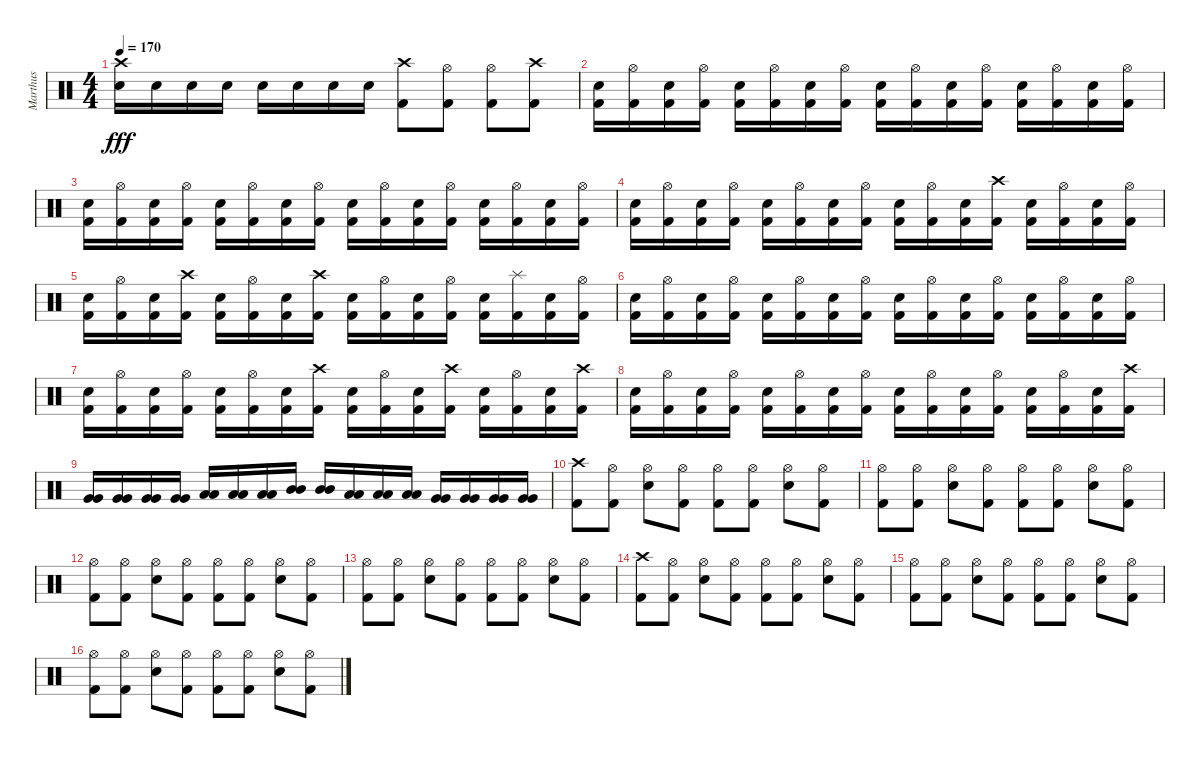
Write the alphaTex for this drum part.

\track ("Marthus" "Marthus") {instrument percussion}
\staff {score}
\articulation defaults
\ts (4 4)
\tempo 170
\clef neutral
\ks c
("Crash high (hit)" "Electric Snare (hit)").16{dy fff} "Electric Snare (hit)".16 "Electric Snare (hit)".16 "Electric Snare (hit)".16 "Electric Snare (hit)".16 "Electric Snare (hit)".16 "Electric Snare (hit)".16 "Electric Snare (hit)".16 ("Crash high (hit)" "Kick (hit) 2").8 ("Hi-Hat (open)" "Kick (hit) 2").8 ("Hi-Hat (open)" "Kick (hit) 2").8 ("Crash high (hit)" "Kick (hit) 2").8 |
("Electric Snare (hit)" "Kick (hit) 2").16 ("Hi-Hat (open)" "Kick (hit) 2").16 ("Electric Snare (hit)" "Kick (hit) 2").16 ("Hi-Hat (open)" "Kick (hit) 2").16 ("Electric Snare (hit)" "Kick (hit) 2").16 ("Hi-Hat (open)" "Kick (hit) 2").16 ("Electric Snare (hit)" "Kick (hit) 2").16 ("Hi-Hat (open)" "Kick (hit) 2").16 ("Electric Snare (hit)" "Kick (hit) 2").16 ("Hi-Hat (open)" "Kick (hit) 2").16 ("Electric Snare (hit)" "Kick (hit) 2").16 ("Hi-Hat (open)" "Kick (hit) 2").16 ("Electric Snare (hit)" "Kick (hit) 2").16 ("Hi-Hat (open)" "Kick (hit) 2").16 ("Electric Snare (hit)" "Kick (hit) 2").16 ("Hi-Hat (open)" "Kick (hit) 2").16 |
("Electric Snare (hit)" "Kick (hit) 2").16 ("Hi-Hat (open)" "Kick (hit) 2").16 ("Electric Snare (hit)" "Kick (hit) 2").16 ("Hi-Hat (open)" "Kick (hit) 2").16 ("Electric Snare (hit)" "Kick (hit) 2").16 ("Hi-Hat (open)" "Kick (hit) 2").16 ("Electric Snare (hit)" "Kick (hit) 2").16 ("Hi-Hat (open)" "Kick (hit) 2").16 ("Electric Snare (hit)" "Kick (hit) 2").16 ("Hi-Hat (open)" "Kick (hit) 2").16 ("Electric Snare (hit)" "Kick (hit) 2").16 ("Hi-Hat (open)" "Kick (hit) 2").16 ("Electric Snare (hit)" "Kick (hit) 2").16 ("Hi-Hat (open)" "Kick (hit) 2").16 ("Electric Snare (hit)" "Kick (hit) 2").16 ("Hi-Hat (open)" "Kick (hit) 2").16 |
("Electric Snare (hit)" "Kick (hit) 2").16 ("Hi-Hat (open)" "Kick (hit) 2").16 ("Electric Snare (hit)" "Kick (hit) 2").16 ("Hi-Hat (open)" "Kick (hit) 2").16 ("Electric Snare (hit)" "Kick (hit) 2").16 ("Hi-Hat (open)" "Kick (hit) 2").16 ("Electric Snare (hit)" "Kick (hit) 2").16 ("Hi-Hat (open)" "Kick (hit) 2").16 ("Electric Snare (hit)" "Kick (hit) 2").16 ("Hi-Hat (open)" "Kick (hit) 2").16 ("Electric Snare (hit)" "Kick (hit) 2").16 ("Crash high (hit)" "Kick (hit) 2").16 ("Electric Snare (hit)" "Kick (hit) 2").16 ("Hi-Hat (open)" "Kick (hit) 2").16 ("Electric Snare (hit)" "Kick (hit) 2").16 ("Hi-Hat (open)" "Kick (hit) 2").16 |
("Electric Snare (hit)" "Kick (hit) 2").16 ("Hi-Hat (open)" "Kick (hit) 2").16 ("Electric Snare (hit)" "Kick (hit) 2").16 ("Crash high (hit)" "Kick (hit) 2").16 ("Electric Snare (hit)" "Kick (hit) 2").16 ("Hi-Hat (open)" "Kick (hit) 2").16 ("Electric Snare (hit)" "Kick (hit) 2").16 ("Crash high (hit)" "Kick (hit) 2").16 ("Electric Snare (hit)" "Kick (hit) 2").16 ("Hi-Hat (open)" "Kick (hit) 2").16 ("Electric Snare (hit)" "Kick (hit) 2").16 ("Hi-Hat (open)" "Kick (hit) 2").16 ("Electric Snare (hit)" "Kick (hit) 2").16 ("Splash (hit)" "Kick (hit) 2").16 ("Electric Snare (hit)" "Kick (hit) 2").16 ("Hi-Hat (open)" "Kick (hit) 2").16 |
("Electric Snare (hit)" "Kick (hit) 2").16 ("Hi-Hat (open)" "Kick (hit) 2").16 ("Electric Snare (hit)" "Kick (hit) 2").16 ("Hi-Hat (open)" "Kick (hit) 2").16 ("Electric Snare (hit)" "Kick (hit) 2").16 ("Hi-Hat (open)" "Kick (hit) 2").16 ("Electric Snare (hit)" "Kick (hit) 2").16 ("Hi-Hat (open)" "Kick (hit) 2").16 ("Electric Snare (hit)" "Kick (hit) 2").16 ("Hi-Hat (open)" "Kick (hit) 2").16 ("Electric Snare (hit)" "Kick (hit) 2").16 ("Hi-Hat (open)" "Kick (hit) 2").16 ("Electric Snare (hit)" "Kick (hit) 2").16 ("Hi-Hat (open)" "Kick (hit) 2").16 ("Electric Snare (hit)" "Kick (hit) 2").16 ("Hi-Hat (open)" "Kick (hit) 2").16 |
("Electric Snare (hit)" "Kick (hit) 2").16 ("Hi-Hat (open)" "Kick (hit) 2").16 ("Electric Snare (hit)" "Kick (hit) 2").16 ("Hi-Hat (open)" "Kick (hit) 2").16 ("Electric Snare (hit)" "Kick (hit) 2").16 ("Hi-Hat (open)" "Kick (hit) 2").16 ("Electric Snare (hit)" "Kick (hit) 2").16 ("Crash high (hit)" "Kick (hit) 2").16 ("Electric Snare (hit)" "Kick (hit) 2").16 ("Hi-Hat (open)" "Kick (hit) 2").16 ("Electric Snare (hit)" "Kick (hit) 2").16 ("Crash high (hit)" "Kick (hit) 2").16 ("Electric Snare (hit)" "Kick (hit) 2").16 ("Hi-Hat (open)" "Kick (hit) 2").16 ("Electric Snare (hit)" "Kick (hit) 2").16 ("Crash high (hit)" "Kick (hit) 2").16 |
("Electric Snare (hit)" "Kick (hit) 2").16 ("Hi-Hat (open)" "Kick (hit) 2").16 ("Electric Snare (hit)" "Kick (hit) 2").16 ("Hi-Hat (open)" "Kick (hit) 2").16 ("Electric Snare (hit)" "Kick (hit) 2").16 ("Hi-Hat (open)" "Kick (hit) 2").16 ("Electric Snare (hit)" "Kick (hit) 2").16 ("Hi-Hat (open)" "Kick (hit) 2").16 ("Electric Snare (hit)" "Kick (hit) 2").16 ("Hi-Hat (open)" "Kick (hit) 2").16 ("Electric Snare (hit)" "Kick (hit) 2").16 ("Hi-Hat (open)" "Kick (hit) 2").16 ("Electric Snare (hit)" "Kick (hit) 2").16 ("Hi-Hat (open)" "Kick (hit) 2").16 ("Electric Snare (hit)" "Kick (hit) 2").16 ("Crash high (hit)" "Kick (hit) 2").16 |
("Very Low Tom (hit)" "Very Low Tom (hit)").16 ("Very Low Tom (hit)" "Very Low Tom (hit)").16 ("Very Low Tom (hit)" "Very Low Tom (hit)").16 ("Very Low Tom (hit)" "Very Low Tom (hit)").16 ("Low Tom (hit)" "Low Tom (hit)").16 ("Low Tom (hit)" "Low Tom (hit)").16 ("Low Tom (hit)" "Low Tom (hit)").16 ("Mid Tom (hit)" "Mid Tom (hit)").16 ("Mid Tom (hit)" "Mid Tom (hit)").16 ("Low Tom (hit)" "Low Tom (hit)").16 ("Low Tom (hit)" "Low Tom (hit)").16 ("Low Tom (hit)" "Low Tom (hit)").16 ("Very Low Tom (hit)" "Very Low Tom (hit)").16 ("Very Low Tom (hit)" "Very Low Tom (hit)").16 ("Very Low Tom (hit)" "Very Low Tom (hit)").16 ("Very Low Tom (hit)" "Very Low Tom (hit)").16 |
("Crash high (hit)" "Kick (hit) 2").8 ("Hi-Hat (open)" "Kick (hit) 2").8 ("Hi-Hat (open)" "Electric Snare (hit)").8 ("Hi-Hat (open)" "Kick (hit) 2").8 ("Hi-Hat (open)" "Kick (hit) 2").8 ("Hi-Hat (open)" "Kick (hit) 2").8 ("Hi-Hat (open)" "Electric Snare (hit)").8 ("Hi-Hat (open)" "Kick (hit) 2").8 |
("Hi-Hat (open)" "Kick (hit) 2").8 ("Hi-Hat (open)" "Kick (hit) 2").8 ("Hi-Hat (open)" "Electric Snare (hit)").8 ("Hi-Hat (open)" "Kick (hit) 2").8 ("Hi-Hat (open)" "Kick (hit) 2").8 ("Hi-Hat (open)" "Kick (hit) 2").8 ("Hi-Hat (open)" "Electric Snare (hit)").8 ("Hi-Hat (open)" "Kick (hit) 2").8 |
("Hi-Hat (open)" "Kick (hit) 2").8 ("Hi-Hat (open)" "Kick (hit) 2").8 ("Hi-Hat (open)" "Electric Snare (hit)").8 ("Hi-Hat (open)" "Kick (hit) 2").8 ("Hi-Hat (open)" "Kick (hit) 2").8 ("Hi-Hat (open)" "Kick (hit) 2").8 ("Hi-Hat (open)" "Electric Snare (hit)").8 ("Hi-Hat (open)" "Kick (hit) 2").8 |
("Hi-Hat (open)" "Kick (hit) 2").8 ("Hi-Hat (open)" "Kick (hit) 2").8 ("Hi-Hat (open)" "Electric Snare (hit)").8 ("Hi-Hat (open)" "Kick (hit) 2").8 ("Hi-Hat (open)" "Kick (hit) 2").8 ("Hi-Hat (open)" "Kick (hit) 2").8 ("Hi-Hat (open)" "Electric Snare (hit)").8 ("Hi-Hat (open)" "Kick (hit) 2").8 |
("Crash high (hit)" "Kick (hit) 2").8 ("Hi-Hat (open)" "Kick (hit) 2").8 ("Hi-Hat (open)" "Electric Snare (hit)").8 ("Hi-Hat (open)" "Kick (hit) 2").8 ("Hi-Hat (open)" "Kick (hit) 2").8 ("Hi-Hat (open)" "Kick (hit) 2").8 ("Hi-Hat (open)" "Electric Snare (hit)").8 ("Hi-Hat (open)" "Kick (hit) 2").8 |
("Hi-Hat (open)" "Kick (hit) 2").8 ("Hi-Hat (open)" "Kick (hit) 2").8 ("Hi-Hat (open)" "Electric Snare (hit)").8 ("Hi-Hat (open)" "Kick (hit) 2").8 ("Hi-Hat (open)" "Kick (hit) 2").8 ("Hi-Hat (open)" "Kick (hit) 2").8 ("Hi-Hat (open)" "Electric Snare (hit)").8 ("Hi-Hat (open)" "Kick (hit) 2").8 |
("Hi-Hat (open)" "Kick (hit) 2").8 ("Hi-Hat (open)" "Kick (hit) 2").8 ("Hi-Hat (open)" "Electric Snare (hit)").8 ("Hi-Hat (open)" "Kick (hit) 2").8 ("Hi-Hat (open)" "Kick (hit) 2").8 ("Hi-Hat (open)" "Kick (hit) 2").8 ("Hi-Hat (open)" "Electric Snare (hit)").8 ("Hi-Hat (open)" "Kick (hit) 2").8
